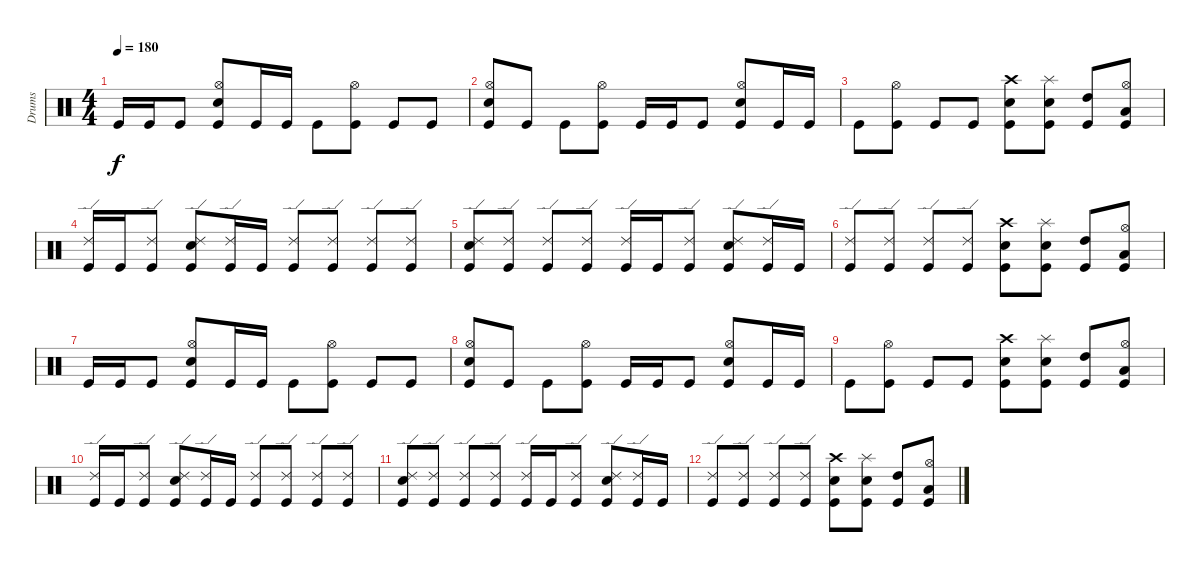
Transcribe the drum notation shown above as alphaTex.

\track ("Drums" "Drums") {instrument percussion}
\staff {score}
\articulation defaults
\ts (4 4)
\tempo 180
\clef neutral
\ks c "Kick (hit)".16{dy f} "Kick (hit)".16 "Kick (hit)".8
("Hi-Hat (open)" "Snare (hit) 2" "Kick (hit)").8 "Kick (hit)".16 "Kick (hit)".16 "Kick (hit)".8 ("Hi-Hat (open)" "Kick (hit)").8 "Kick (hit)".8 "Kick (hit)".8 |
("Hi-Hat (open)" "Snare (hit) 2" "Kick (hit)").8 "Kick (hit)".8 "Kick (hit)".8 ("Hi-Hat (open)" "Kick (hit)").8 "Kick (hit)".16 "Kick (hit)".16 "Kick (hit)".8 ("Hi-Hat (open)" "Snare (hit) 2" "Kick (hit)").8 "Kick (hit)".16 "Kick (hit)".16 |
"Kick (hit)".8 ("Hi-Hat (open)" "Kick (hit)").8 "Kick (hit)".8 "Kick (hit)".8 ("Crash high (hit)" "Snare (hit) 2" "Kick (hit)").8 ("Splash (hit)" "Snare (hit) 2" "Kick (hit)").8 ("High Tom (hit)" "Kick (hit)").8 ("Hi-Hat (open)" "Low Tom (hit)" "Kick (hit)").8 |
("Ride (edge) 2" "Kick (hit)").16 "Kick (hit)".16 ("Ride (edge) 2" "Kick (hit)").8 ("Ride (edge) 2" "Snare (hit) 2" "Kick (hit)").8 ("Ride (edge) 2" "Kick (hit)").16 "Kick (hit)".16 ("Ride (edge) 2" "Kick (hit)").8 ("Ride (edge) 2" "Kick (hit)").8 ("Ride (edge) 2" "Kick (hit)").8 ("Ride (edge) 2" "Kick (hit)").8 |
("Ride (edge) 2" "Snare (hit) 2" "Kick (hit)").8 ("Ride (edge) 2" "Kick (hit)").8 ("Ride (edge) 2" "Kick (hit)").8 ("Ride (edge) 2" "Kick (hit)").8 ("Ride (edge) 2" "Kick (hit)").16 "Kick (hit)".16 ("Ride (edge) 2" "Kick (hit)").8 ("Ride (edge) 2" "Snare (hit) 2" "Kick (hit)").8 ("Ride (edge) 2" "Kick (hit)").16 "Kick (hit)".16 |
("Ride (edge) 2" "Kick (hit)").8 ("Ride (edge) 2" "Kick (hit)").8 ("Ride (edge) 2" "Kick (hit)").8 ("Ride (edge) 2" "Kick (hit)").8 ("Crash high (hit)" "Snare (hit) 2" "Kick (hit)").8 ("Splash (hit)" "Snare (hit) 2" "Kick (hit)").8 ("High Tom (hit)" "Kick (hit)").8 ("Hi-Hat (open)" "Low Tom (hit)" "Kick (hit)").8 |
"Kick (hit)".16 "Kick (hit)".16 "Kick (hit)".8 ("Hi-Hat (open)" "Snare (hit) 2" "Kick (hit)").8 "Kick (hit)".16 "Kick (hit)".16 "Kick (hit)".8 ("Hi-Hat (open)" "Kick (hit)").8 "Kick (hit)".8 "Kick (hit)".8 |
("Hi-Hat (open)" "Snare (hit) 2" "Kick (hit)").8 "Kick (hit)".8 "Kick (hit)".8 ("Hi-Hat (open)" "Kick (hit)").8 "Kick (hit)".16 "Kick (hit)".16 "Kick (hit)".8 ("Hi-Hat (open)" "Snare (hit) 2" "Kick (hit)").8 "Kick (hit)".16 "Kick (hit)".16 |
"Kick (hit)".8 ("Hi-Hat (open)" "Kick (hit)").8 "Kick (hit)".8 "Kick (hit)".8 ("Crash high (hit)" "Snare (hit) 2" "Kick (hit)").8 ("Splash (hit)" "Snare (hit) 2" "Kick (hit)").8 ("High Tom (hit)" "Kick (hit)").8 ("Hi-Hat (open)" "Low Tom (hit)" "Kick (hit)").8 |
("Ride (edge) 2" "Kick (hit)").16{volume 11} "Kick (hit)".16 ("Ride (edge) 2" "Kick (hit)").8 ("Ride (edge) 2" "Snare (hit) 2" "Kick (hit)").8 ("Ride (edge) 2" "Kick (hit)").16 "Kick (hit)".16 ("Ride (edge) 2" "Kick (hit)").8 ("Ride (edge) 2" "Kick (hit)").8 ("Ride (edge) 2" "Kick (hit)").8 ("Ride (edge) 2" "Kick (hit)").8 |
("Ride (edge) 2" "Snare (hit) 2" "Kick (hit)").8{volume 0} ("Ride (edge) 2" "Kick (hit)").8 ("Ride (edge) 2" "Kick (hit)").8 ("Ride (edge) 2" "Kick (hit)").8 ("Ride (edge) 2" "Kick (hit)").16 "Kick (hit)".16 ("Ride (edge) 2" "Kick (hit)").8 ("Ride (edge) 2" "Snare (hit) 2" "Kick (hit)").8 ("Ride (edge) 2" "Kick (hit)").16 "Kick (hit)".16 |
("Ride (edge) 2" "Kick (hit)").8 ("Ride (edge) 2" "Kick (hit)").8 ("Ride (edge) 2" "Kick (hit)").8 ("Ride (edge) 2" "Kick (hit)").8 ("Crash high (hit)" "Snare (hit) 2" "Kick (hit)").8 ("Splash (hit)" "Snare (hit) 2" "Kick (hit)").8 ("High Tom (hit)" "Kick (hit)").8 ("Hi-Hat (open)" "Low Tom (hit)" "Kick (hit)").8
